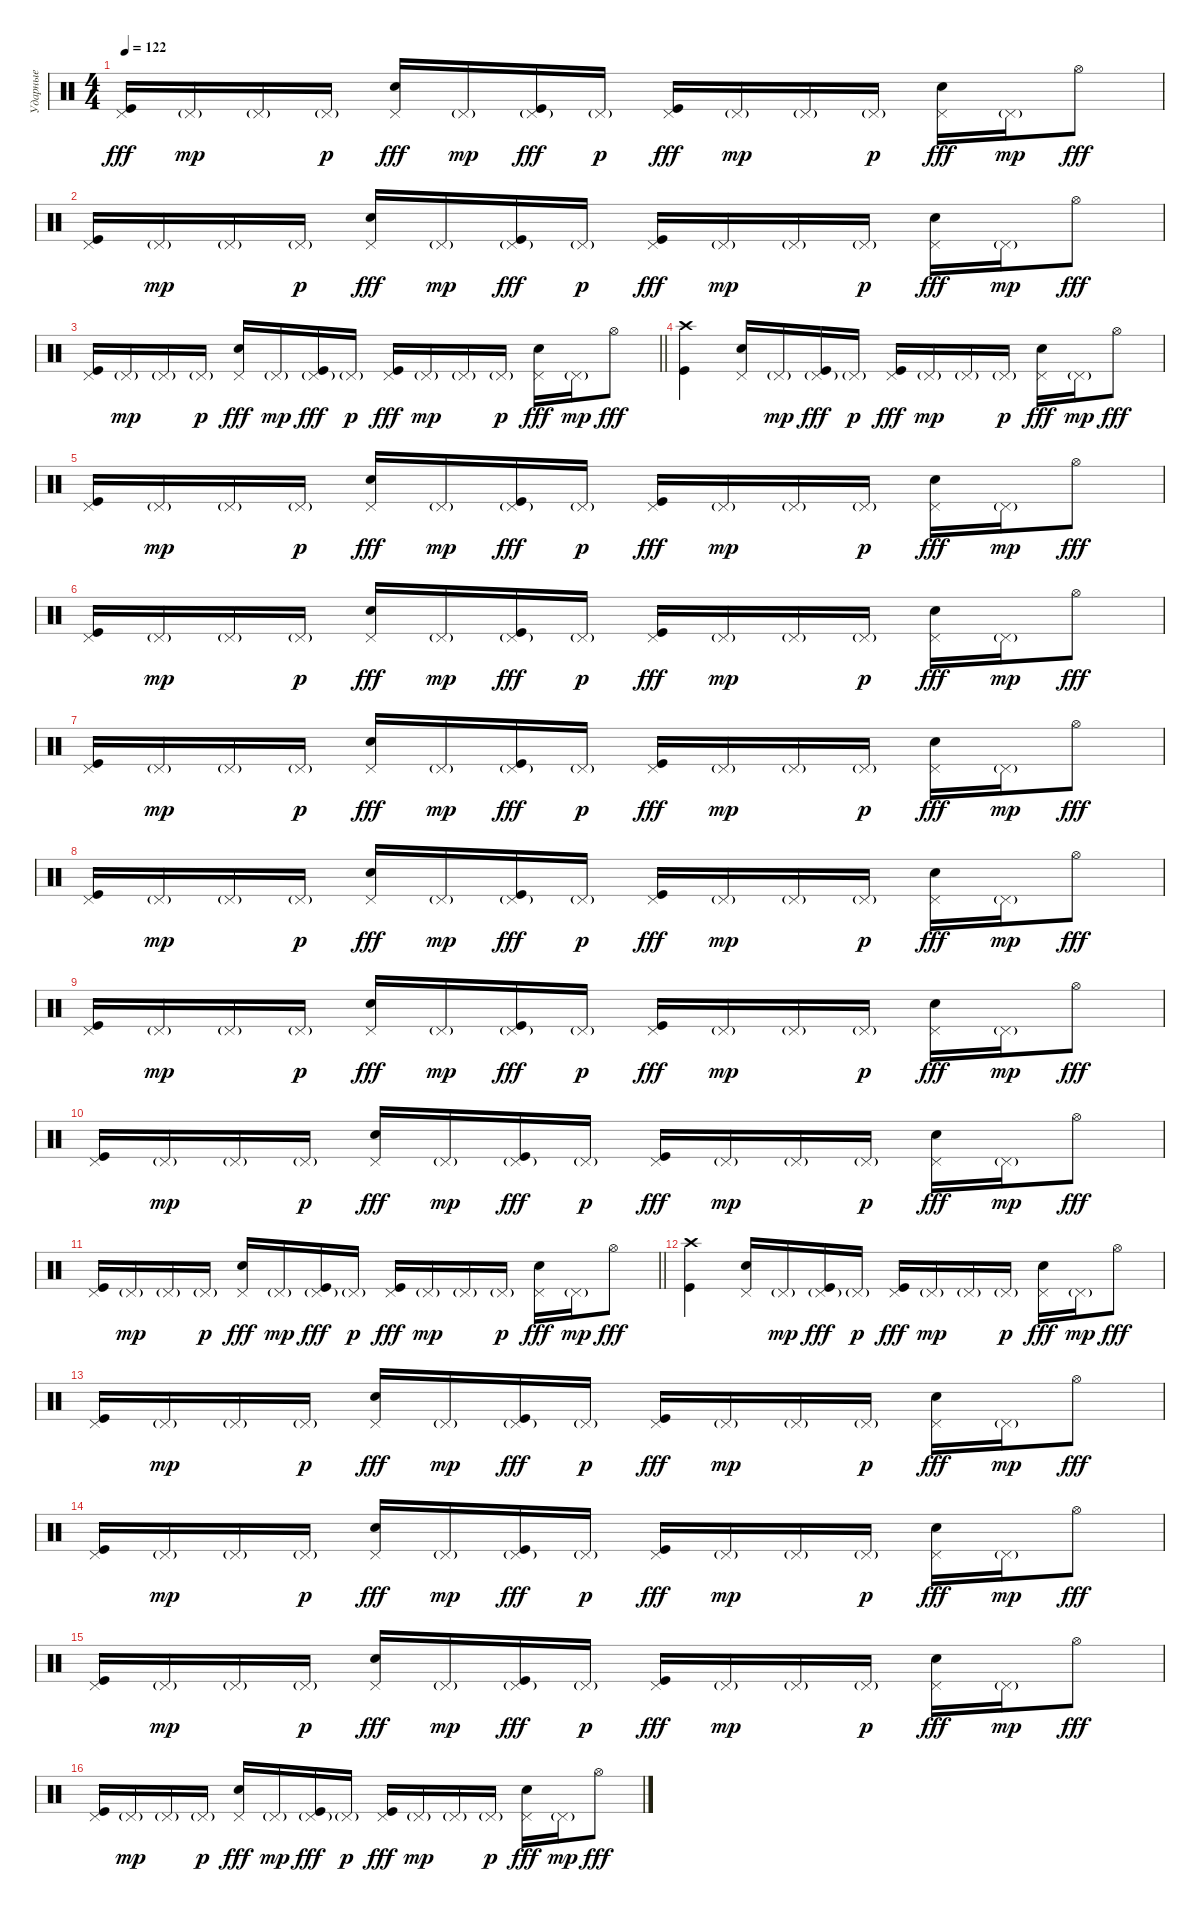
\track ("Ударные" "Ударные") {instrument percussion}
\staff {score}
\articulation defaults
\ts (4 4)
\tempo 122
\clef neutral
\ks c
("Pedal Hi-Hat (hit)" "Kick (hit)").16{dy fff} "Pedal Hi-Hat (hit)"{g}.16{dy mp} "Pedal Hi-Hat (hit)"{g}.16 "Pedal Hi-Hat (hit)"{g}.16{dy p} ("Pedal Hi-Hat (hit)" "Electric Snare (hit)").16{dy fff} "Pedal Hi-Hat (hit)"{g}.16{dy mp} ("Pedal Hi-Hat (hit)"{g} "Kick (hit)").16{dy fff} "Pedal Hi-Hat (hit)"{g}.16{dy p} ("Pedal Hi-Hat (hit)" "Kick (hit)").16{dy fff} "Pedal Hi-Hat (hit)"{g}.16{dy mp} "Pedal Hi-Hat (hit)"{g}.16 "Pedal Hi-Hat (hit)"{g}.16{dy p} ("Pedal Hi-Hat (hit)" "Electric Snare (hit)").16{dy fff} "Pedal Hi-Hat (hit)"{g}.16{dy mp} "Hi-Hat (open)".8{dy fff} |
("Pedal Hi-Hat (hit)" "Kick (hit)").16 "Pedal Hi-Hat (hit)"{g}.16{dy mp} "Pedal Hi-Hat (hit)"{g}.16 "Pedal Hi-Hat (hit)"{g}.16{dy p} ("Pedal Hi-Hat (hit)" "Electric Snare (hit)").16{dy fff} "Pedal Hi-Hat (hit)"{g}.16{dy mp} ("Pedal Hi-Hat (hit)"{g} "Kick (hit)").16{dy fff} "Pedal Hi-Hat (hit)"{g}.16{dy p} ("Pedal Hi-Hat (hit)" "Kick (hit)").16{dy fff} "Pedal Hi-Hat (hit)"{g}.16{dy mp} "Pedal Hi-Hat (hit)"{g}.16 "Pedal Hi-Hat (hit)"{g}.16{dy p} ("Pedal Hi-Hat (hit)" "Electric Snare (hit)").16{dy fff} "Pedal Hi-Hat (hit)"{g}.16{dy mp} "Hi-Hat (open)".8{dy fff} |
\barLineRight lightlight
("Pedal Hi-Hat (hit)" "Kick (hit)").16 "Pedal Hi-Hat (hit)"{g}.16{dy mp} "Pedal Hi-Hat (hit)"{g}.16 "Pedal Hi-Hat (hit)"{g}.16{dy p} ("Pedal Hi-Hat (hit)" "Electric Snare (hit)").16{dy fff} "Pedal Hi-Hat (hit)"{g}.16{dy mp} ("Pedal Hi-Hat (hit)"{g} "Kick (hit)").16{dy fff} "Pedal Hi-Hat (hit)"{g}.16{dy p} ("Pedal Hi-Hat (hit)" "Kick (hit)").16{dy fff} "Pedal Hi-Hat (hit)"{g}.16{dy mp} "Pedal Hi-Hat (hit)"{g}.16 "Pedal Hi-Hat (hit)"{g}.16{dy p} ("Pedal Hi-Hat (hit)" "Electric Snare (hit)").16{dy fff} "Pedal Hi-Hat (hit)"{g}.16{dy mp} "Hi-Hat (open)".8{dy fff} |
("Crash high (hit)" "Kick (hit)").4 ("Pedal Hi-Hat (hit)" "Electric Snare (hit)").16 "Pedal Hi-Hat (hit)"{g}.16{dy mp} ("Pedal Hi-Hat (hit)"{g} "Kick (hit)").16{dy fff} "Pedal Hi-Hat (hit)"{g}.16{dy p} ("Pedal Hi-Hat (hit)" "Kick (hit)").16{dy fff} "Pedal Hi-Hat (hit)"{g}.16{dy mp} "Pedal Hi-Hat (hit)"{g}.16 "Pedal Hi-Hat (hit)"{g}.16{dy p} ("Pedal Hi-Hat (hit)" "Electric Snare (hit)").16{dy fff} "Pedal Hi-Hat (hit)"{g}.16{dy mp} "Hi-Hat (open)".8{dy fff} |
("Pedal Hi-Hat (hit)" "Kick (hit)").16 "Pedal Hi-Hat (hit)"{g}.16{dy mp} "Pedal Hi-Hat (hit)"{g}.16 "Pedal Hi-Hat (hit)"{g}.16{dy p} ("Pedal Hi-Hat (hit)" "Electric Snare (hit)").16{dy fff} "Pedal Hi-Hat (hit)"{g}.16{dy mp} ("Pedal Hi-Hat (hit)"{g} "Kick (hit)").16{dy fff} "Pedal Hi-Hat (hit)"{g}.16{dy p} ("Pedal Hi-Hat (hit)" "Kick (hit)").16{dy fff} "Pedal Hi-Hat (hit)"{g}.16{dy mp} "Pedal Hi-Hat (hit)"{g}.16 "Pedal Hi-Hat (hit)"{g}.16{dy p} ("Pedal Hi-Hat (hit)" "Electric Snare (hit)").16{dy fff} "Pedal Hi-Hat (hit)"{g}.16{dy mp} "Hi-Hat (open)".8{dy fff} |
("Pedal Hi-Hat (hit)" "Kick (hit)").16 "Pedal Hi-Hat (hit)"{g}.16{dy mp} "Pedal Hi-Hat (hit)"{g}.16 "Pedal Hi-Hat (hit)"{g}.16{dy p} ("Pedal Hi-Hat (hit)" "Electric Snare (hit)").16{dy fff} "Pedal Hi-Hat (hit)"{g}.16{dy mp} ("Pedal Hi-Hat (hit)"{g} "Kick (hit)").16{dy fff} "Pedal Hi-Hat (hit)"{g}.16{dy p} ("Pedal Hi-Hat (hit)" "Kick (hit)").16{dy fff} "Pedal Hi-Hat (hit)"{g}.16{dy mp} "Pedal Hi-Hat (hit)"{g}.16 "Pedal Hi-Hat (hit)"{g}.16{dy p} ("Pedal Hi-Hat (hit)" "Electric Snare (hit)").16{dy fff} "Pedal Hi-Hat (hit)"{g}.16{dy mp} "Hi-Hat (open)".8{dy fff} |
("Pedal Hi-Hat (hit)" "Kick (hit)").16 "Pedal Hi-Hat (hit)"{g}.16{dy mp} "Pedal Hi-Hat (hit)"{g}.16 "Pedal Hi-Hat (hit)"{g}.16{dy p} ("Pedal Hi-Hat (hit)" "Electric Snare (hit)").16{dy fff} "Pedal Hi-Hat (hit)"{g}.16{dy mp} ("Pedal Hi-Hat (hit)"{g} "Kick (hit)").16{dy fff} "Pedal Hi-Hat (hit)"{g}.16{dy p} ("Pedal Hi-Hat (hit)" "Kick (hit)").16{dy fff} "Pedal Hi-Hat (hit)"{g}.16{dy mp} "Pedal Hi-Hat (hit)"{g}.16 "Pedal Hi-Hat (hit)"{g}.16{dy p} ("Pedal Hi-Hat (hit)" "Electric Snare (hit)").16{dy fff} "Pedal Hi-Hat (hit)"{g}.16{dy mp} "Hi-Hat (open)".8{dy fff} |
("Pedal Hi-Hat (hit)" "Kick (hit)").16 "Pedal Hi-Hat (hit)"{g}.16{dy mp} "Pedal Hi-Hat (hit)"{g}.16 "Pedal Hi-Hat (hit)"{g}.16{dy p} ("Pedal Hi-Hat (hit)" "Electric Snare (hit)").16{dy fff} "Pedal Hi-Hat (hit)"{g}.16{dy mp} ("Pedal Hi-Hat (hit)"{g} "Kick (hit)").16{dy fff} "Pedal Hi-Hat (hit)"{g}.16{dy p} ("Pedal Hi-Hat (hit)" "Kick (hit)").16{dy fff} "Pedal Hi-Hat (hit)"{g}.16{dy mp} "Pedal Hi-Hat (hit)"{g}.16 "Pedal Hi-Hat (hit)"{g}.16{dy p} ("Pedal Hi-Hat (hit)" "Electric Snare (hit)").16{dy fff} "Pedal Hi-Hat (hit)"{g}.16{dy mp} "Hi-Hat (open)".8{dy fff} |
("Pedal Hi-Hat (hit)" "Kick (hit)").16 "Pedal Hi-Hat (hit)"{g}.16{dy mp} "Pedal Hi-Hat (hit)"{g}.16 "Pedal Hi-Hat (hit)"{g}.16{dy p} ("Pedal Hi-Hat (hit)" "Electric Snare (hit)").16{dy fff} "Pedal Hi-Hat (hit)"{g}.16{dy mp} ("Pedal Hi-Hat (hit)"{g} "Kick (hit)").16{dy fff} "Pedal Hi-Hat (hit)"{g}.16{dy p} ("Pedal Hi-Hat (hit)" "Kick (hit)").16{dy fff} "Pedal Hi-Hat (hit)"{g}.16{dy mp} "Pedal Hi-Hat (hit)"{g}.16 "Pedal Hi-Hat (hit)"{g}.16{dy p} ("Pedal Hi-Hat (hit)" "Electric Snare (hit)").16{dy fff} "Pedal Hi-Hat (hit)"{g}.16{dy mp} "Hi-Hat (open)".8{dy fff} |
("Pedal Hi-Hat (hit)" "Kick (hit)").16 "Pedal Hi-Hat (hit)"{g}.16{dy mp} "Pedal Hi-Hat (hit)"{g}.16 "Pedal Hi-Hat (hit)"{g}.16{dy p} ("Pedal Hi-Hat (hit)" "Electric Snare (hit)").16{dy fff} "Pedal Hi-Hat (hit)"{g}.16{dy mp} ("Pedal Hi-Hat (hit)"{g} "Kick (hit)").16{dy fff} "Pedal Hi-Hat (hit)"{g}.16{dy p} ("Pedal Hi-Hat (hit)" "Kick (hit)").16{dy fff} "Pedal Hi-Hat (hit)"{g}.16{dy mp} "Pedal Hi-Hat (hit)"{g}.16 "Pedal Hi-Hat (hit)"{g}.16{dy p} ("Pedal Hi-Hat (hit)" "Electric Snare (hit)").16{dy fff} "Pedal Hi-Hat (hit)"{g}.16{dy mp} "Hi-Hat (open)".8{dy fff} |
\barLineRight lightlight
("Pedal Hi-Hat (hit)" "Kick (hit)").16 "Pedal Hi-Hat (hit)"{g}.16{dy mp} "Pedal Hi-Hat (hit)"{g}.16 "Pedal Hi-Hat (hit)"{g}.16{dy p} ("Pedal Hi-Hat (hit)" "Electric Snare (hit)").16{dy fff} "Pedal Hi-Hat (hit)"{g}.16{dy mp} ("Pedal Hi-Hat (hit)"{g} "Kick (hit)").16{dy fff} "Pedal Hi-Hat (hit)"{g}.16{dy p} ("Pedal Hi-Hat (hit)" "Kick (hit)").16{dy fff} "Pedal Hi-Hat (hit)"{g}.16{dy mp} "Pedal Hi-Hat (hit)"{g}.16 "Pedal Hi-Hat (hit)"{g}.16{dy p} ("Pedal Hi-Hat (hit)" "Electric Snare (hit)").16{dy fff} "Pedal Hi-Hat (hit)"{g}.16{dy mp} "Hi-Hat (open)".8{dy fff} |
("Crash high (hit)" "Kick (hit)").4 ("Pedal Hi-Hat (hit)" "Electric Snare (hit)").16 "Pedal Hi-Hat (hit)"{g}.16{dy mp} ("Pedal Hi-Hat (hit)"{g} "Kick (hit)").16{dy fff} "Pedal Hi-Hat (hit)"{g}.16{dy p} ("Pedal Hi-Hat (hit)" "Kick (hit)").16{dy fff} "Pedal Hi-Hat (hit)"{g}.16{dy mp} "Pedal Hi-Hat (hit)"{g}.16 "Pedal Hi-Hat (hit)"{g}.16{dy p} ("Pedal Hi-Hat (hit)" "Electric Snare (hit)").16{dy fff} "Pedal Hi-Hat (hit)"{g}.16{dy mp} "Hi-Hat (open)".8{dy fff} |
("Pedal Hi-Hat (hit)" "Kick (hit)").16 "Pedal Hi-Hat (hit)"{g}.16{dy mp} "Pedal Hi-Hat (hit)"{g}.16 "Pedal Hi-Hat (hit)"{g}.16{dy p} ("Pedal Hi-Hat (hit)" "Electric Snare (hit)").16{dy fff} "Pedal Hi-Hat (hit)"{g}.16{dy mp} ("Pedal Hi-Hat (hit)"{g} "Kick (hit)").16{dy fff} "Pedal Hi-Hat (hit)"{g}.16{dy p} ("Pedal Hi-Hat (hit)" "Kick (hit)").16{dy fff} "Pedal Hi-Hat (hit)"{g}.16{dy mp} "Pedal Hi-Hat (hit)"{g}.16 "Pedal Hi-Hat (hit)"{g}.16{dy p} ("Pedal Hi-Hat (hit)" "Electric Snare (hit)").16{dy fff} "Pedal Hi-Hat (hit)"{g}.16{dy mp} "Hi-Hat (open)".8{dy fff} |
("Pedal Hi-Hat (hit)" "Kick (hit)").16 "Pedal Hi-Hat (hit)"{g}.16{dy mp} "Pedal Hi-Hat (hit)"{g}.16 "Pedal Hi-Hat (hit)"{g}.16{dy p} ("Pedal Hi-Hat (hit)" "Electric Snare (hit)").16{dy fff} "Pedal Hi-Hat (hit)"{g}.16{dy mp} ("Pedal Hi-Hat (hit)"{g} "Kick (hit)").16{dy fff} "Pedal Hi-Hat (hit)"{g}.16{dy p} ("Pedal Hi-Hat (hit)" "Kick (hit)").16{dy fff} "Pedal Hi-Hat (hit)"{g}.16{dy mp} "Pedal Hi-Hat (hit)"{g}.16 "Pedal Hi-Hat (hit)"{g}.16{dy p} ("Pedal Hi-Hat (hit)" "Electric Snare (hit)").16{dy fff} "Pedal Hi-Hat (hit)"{g}.16{dy mp} "Hi-Hat (open)".8{dy fff} |
("Pedal Hi-Hat (hit)" "Kick (hit)").16 "Pedal Hi-Hat (hit)"{g}.16{dy mp} "Pedal Hi-Hat (hit)"{g}.16 "Pedal Hi-Hat (hit)"{g}.16{dy p} ("Pedal Hi-Hat (hit)" "Electric Snare (hit)").16{dy fff} "Pedal Hi-Hat (hit)"{g}.16{dy mp} ("Pedal Hi-Hat (hit)"{g} "Kick (hit)").16{dy fff} "Pedal Hi-Hat (hit)"{g}.16{dy p} ("Pedal Hi-Hat (hit)" "Kick (hit)").16{dy fff} "Pedal Hi-Hat (hit)"{g}.16{dy mp} "Pedal Hi-Hat (hit)"{g}.16 "Pedal Hi-Hat (hit)"{g}.16{dy p} ("Pedal Hi-Hat (hit)" "Electric Snare (hit)").16{dy fff} "Pedal Hi-Hat (hit)"{g}.16{dy mp} "Hi-Hat (open)".8{dy fff} |
("Pedal Hi-Hat (hit)" "Kick (hit)").16 "Pedal Hi-Hat (hit)"{g}.16{dy mp} "Pedal Hi-Hat (hit)"{g}.16 "Pedal Hi-Hat (hit)"{g}.16{dy p} ("Pedal Hi-Hat (hit)" "Electric Snare (hit)").16{dy fff} "Pedal Hi-Hat (hit)"{g}.16{dy mp} ("Pedal Hi-Hat (hit)"{g} "Kick (hit)").16{dy fff} "Pedal Hi-Hat (hit)"{g}.16{dy p} ("Pedal Hi-Hat (hit)" "Kick (hit)").16{dy fff} "Pedal Hi-Hat (hit)"{g}.16{dy mp} "Pedal Hi-Hat (hit)"{g}.16 "Pedal Hi-Hat (hit)"{g}.16{dy p} ("Pedal Hi-Hat (hit)" "Electric Snare (hit)").16{dy fff} "Pedal Hi-Hat (hit)"{g}.16{dy mp} "Hi-Hat (open)".8{dy fff}
